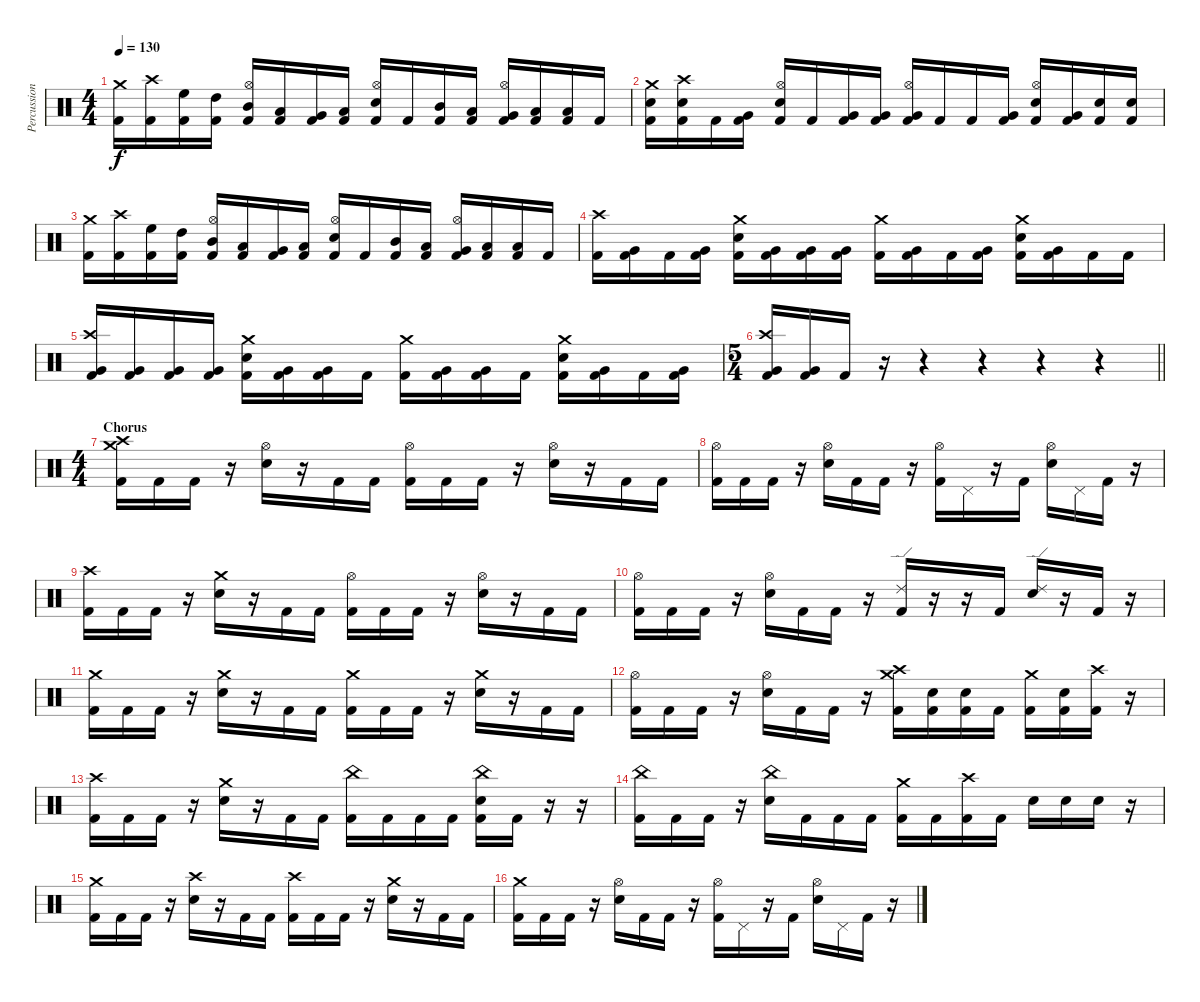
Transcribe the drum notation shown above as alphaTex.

\track ("Percussion" "Percussion") {instrument percussion}
\staff {score}
\articulation defaults
\ts (4 4)
\tempo 130
\clef neutral
\ks c
("Crash medium (hit)" "Kick (hit) 2").16{dy f} ("Crash high (hit)" "Kick (hit) 2").16 ("High Floor Tom (hit)" "Kick (hit) 2").16 ("High Tom (hit)" "Kick (hit) 2").16 ("Hi-Hat (open)" "Mid Tom (hit)" "Kick (hit) 2").16 ("Low Tom (hit)" "Kick (hit) 2").16 ("Very Low Tom (hit)" "Kick (hit) 2").16 ("Low Floor Tom (hit)" "Kick (hit) 2").16 ("Hi-Hat (open)" "Electric Snare (hit)" "Kick (hit) 2").16 "Kick (hit) 2".16 ("Mid Tom (hit)" "Kick (hit) 2").16 ("Low Tom (hit)" "Kick (hit) 2").16 ("Hi-Hat (open)" "Very Low Tom (hit)" "Kick (hit) 2").16 ("Low Floor Tom (hit)" "Kick (hit) 2").16 ("Low Floor Tom (hit)" "Kick (hit) 2").16 "Kick (hit) 2".16 |
("Crash medium (hit)" "Electric Snare (hit)" "Kick (hit) 2").16 ("Crash high (hit)" "Electric Snare (hit)" "Kick (hit) 2").16 "Kick (hit) 2".16 ("Very Low Tom (hit)" "Kick (hit) 2").16 ("Hi-Hat (open)" "Electric Snare (hit)" "Kick (hit) 2").16 "Kick (hit) 2".16 ("Very Low Tom (hit)" "Kick (hit) 2").16 ("Very Low Tom (hit)" "Kick (hit) 2").16 ("Hi-Hat (open)" "Very Low Tom (hit)" "Kick (hit) 2").16 "Kick (hit) 2".16 "Kick (hit) 2".16 ("Very Low Tom (hit)" "Kick (hit) 2").16 ("Hi-Hat (open)" "Electric Snare (hit)" "Kick (hit) 2").16 ("Very Low Tom (hit)" "Kick (hit) 2").16 ("Electric Snare (hit)" "Kick (hit) 2").16 ("Electric Snare (hit)" "Kick (hit) 2").16 |
("Crash medium (hit)" "Kick (hit) 2").16 ("Crash high (hit)" "Kick (hit) 2").16 ("High Floor Tom (hit)" "Kick (hit) 2").16 ("High Tom (hit)" "Kick (hit) 2").16 ("Hi-Hat (open)" "Mid Tom (hit)" "Kick (hit) 2").16 ("Low Tom (hit)" "Kick (hit) 2").16 ("Very Low Tom (hit)" "Kick (hit) 2").16 ("Low Floor Tom (hit)" "Kick (hit) 2").16 ("Hi-Hat (open)" "Electric Snare (hit)" "Kick (hit) 2").16 "Kick (hit) 2".16 ("Mid Tom (hit)" "Kick (hit) 2").16 ("Low Tom (hit)" "Kick (hit) 2").16 ("Hi-Hat (open)" "Very Low Tom (hit)" "Kick (hit) 2").16 ("Low Floor Tom (hit)" "Kick (hit) 2").16 ("Low Floor Tom (hit)" "Kick (hit) 2").16 "Kick (hit) 2".16 |
("Crash high (hit)" "Kick (hit) 2").16 ("Very Low Tom (hit)" "Kick (hit) 2").16 "Kick (hit) 2".16 ("Very Low Tom (hit)" "Kick (hit) 2").16 ("Crash medium (hit)" "Electric Snare (hit)" "Kick (hit) 2").16 ("Very Low Tom (hit)" "Kick (hit) 2").16 ("Very Low Tom (hit)" "Kick (hit) 2").16 ("Very Low Tom (hit)" "Kick (hit) 2").16 ("Crash medium (hit)" "Kick (hit) 2").16 ("Very Low Tom (hit)" "Kick (hit) 2").16 "Kick (hit) 2".16 ("Very Low Tom (hit)" "Kick (hit) 2").16 ("Crash medium (hit)" "Electric Snare (hit)" "Kick (hit) 2").16 ("Very Low Tom (hit)" "Kick (hit) 2").16 "Kick (hit) 2".16 "Kick (hit) 2".16 |
("Crash high (hit)" "Very Low Tom (hit)" "Kick (hit) 2").16 ("Very Low Tom (hit)" "Kick (hit) 2").16 ("Very Low Tom (hit)" "Kick (hit) 2").16 ("Very Low Tom (hit)" "Kick (hit) 2").16 ("Crash medium (hit)" "Electric Snare (hit)" "Kick (hit) 2").16 ("Very Low Tom (hit)" "Kick (hit) 2").16 ("Very Low Tom (hit)" "Kick (hit) 2").16 "Kick (hit) 2".16 ("Crash medium (hit)" "Kick (hit) 2").16 ("Very Low Tom (hit)" "Kick (hit) 2").16 ("Very Low Tom (hit)" "Kick (hit) 2").16 "Kick (hit) 2".16 ("Crash medium (hit)" "Electric Snare (hit)" "Kick (hit) 2").16 ("Very Low Tom (hit)" "Kick (hit) 2").16 "Kick (hit) 2".16 ("Very Low Tom (hit)" "Kick (hit) 2").16 |
\ts (5 4)
\barLineRight lightlight
("Crash high (hit)" "Very Low Tom (hit)" "Kick (hit) 2").16 ("Very Low Tom (hit)" "Kick (hit) 2").16 "Kick (hit) 2".16 r.16 r.4 r.4 r.4 r.4 |
\ts (4 4)
\section ("" "Chorus")
("Crash medium (hit)" "Crash high (hit)" "Kick (hit) 2").16 "Kick (hit) 2".16 "Kick (hit) 2".16 r.16 ("Hi-Hat (open)" "Electric Snare (hit)").16 r.16 "Kick (hit) 2".16 "Kick (hit) 2".16 ("Hi-Hat (open)" "Kick (hit) 2").16 "Kick (hit) 2".16 "Kick (hit) 2".16 r.16 ("Hi-Hat (open)" "Electric Snare (hit)").16 r.16 "Kick (hit) 2".16 "Kick (hit) 2".16 |
("Hi-Hat (open)" "Kick (hit) 2").16 "Kick (hit) 2".16 "Kick (hit) 2".16 r.16 ("Hi-Hat (open)" "Electric Snare (hit)").16 "Kick (hit) 2".16 "Kick (hit) 2".16 r.16 ("Hi-Hat (open)" "Kick (hit) 2").16 "Pedal Hi-Hat (hit)".16 r.16 "Kick (hit) 2".16 ("Hi-Hat (open)" "Electric Snare (hit)").16 "Pedal Hi-Hat (hit)".16 "Kick (hit) 2".16 r.16 |
("Crash high (hit)" "Kick (hit) 2").16 "Kick (hit) 2".16 "Kick (hit) 2".16 r.16 ("Crash medium (hit)" "Electric Snare (hit)").16 r.16 "Kick (hit) 2".16 "Kick (hit) 2".16 ("Hi-Hat (open)" "Kick (hit) 2").16 "Kick (hit) 2".16 "Kick (hit) 2".16 r.16 ("Hi-Hat (open)" "Electric Snare (hit)").16 r.16 "Kick (hit) 2".16 "Kick (hit) 2".16 |
("Hi-Hat (open)" "Kick (hit) 2").16 "Kick (hit) 2".16 "Kick (hit) 2".16 r.16 ("Hi-Hat (open)" "Electric Snare (hit)").16 "Kick (hit) 2".16 "Kick (hit) 2".16 r.16 ("Ride (edge) 2" "Kick (hit) 2").16 r.16 r.16 "Kick (hit) 2".16 ("Ride (edge) 2" "Electric Snare (hit)").16 r.16 "Kick (hit) 2".16 r.16 |
("Crash medium (hit)" "Kick (hit) 2").16 "Kick (hit) 2".16 "Kick (hit) 2".16 r.16 ("Crash medium (hit)" "Electric Snare (hit)").16 r.16 "Kick (hit) 2".16 "Kick (hit) 2".16 ("Crash medium (hit)" "Kick (hit) 2").16 "Kick (hit) 2".16 "Kick (hit) 2".16 r.16 ("Crash medium (hit)" "Electric Snare (hit)").16 r.16 "Kick (hit) 2".16 "Kick (hit) 2".16 |
("Hi-Hat (open)" "Kick (hit) 2").16 "Kick (hit) 2".16 "Kick (hit) 2".16 r.16 ("Hi-Hat (open)" "Electric Snare (hit)").16 "Kick (hit) 2".16 "Kick (hit) 2".16 r.16 ("Crash high (hit)" "Crash medium (hit)" "Kick (hit) 2").16 ("Electric Snare (hit)" "Kick (hit) 2").16 ("Electric Snare (hit)" "Kick (hit) 2").16 "Kick (hit) 2".16 ("Crash medium (hit)" "Kick (hit) 2").16 ("Electric Snare (hit)" "Kick (hit) 2").16 ("Crash high (hit)" "Kick (hit) 2").16 r.16 |
("Crash high (hit)" "Kick (hit) 2").16 "Kick (hit) 2".16 "Kick (hit) 2".16 r.16 ("Crash medium (hit)" "Electric Snare (hit)").16 r.16 "Kick (hit) 2".16 "Kick (hit) 2".16 ("China (hit)" "Kick (hit) 2").16 "Kick (hit) 2".16 "Kick (hit) 2".16 "Kick (hit) 2".16 ("China (hit)" "Electric Snare (hit)" "Kick (hit) 2").16 "Kick (hit) 2".16 r.16 r.16 |
("China (hit)" "Kick (hit) 2").16 "Kick (hit) 2".16 "Kick (hit) 2".16 r.16 ("China (hit)" "Electric Snare (hit)").16 "Kick (hit) 2".16 "Kick (hit) 2".16 "Kick (hit) 2".16 ("Crash medium (hit)" "Kick (hit) 2").16 "Kick (hit) 2".16 ("Crash high (hit)" "Kick (hit) 2").16 "Kick (hit) 2".16 "Electric Snare (hit)".16 "Electric Snare (hit)".16 "Electric Snare (hit)".16 r.16 |
("Crash medium (hit)" "Kick (hit) 2").16 "Kick (hit) 2".16 "Kick (hit) 2".16 r.16 ("Crash high (hit)" "Electric Snare (hit)").16 r.16 "Kick (hit) 2".16 "Kick (hit) 2".16 ("Crash high (hit)" "Kick (hit) 2").16 "Kick (hit) 2".16 "Kick (hit) 2".16 r.16 ("Crash medium (hit)" "Electric Snare (hit)").16 r.16 "Kick (hit) 2".16 "Kick (hit) 2".16 |
("Crash medium (hit)" "Kick (hit) 2").16 "Kick (hit) 2".16 "Kick (hit) 2".16 r.16 ("Hi-Hat (open)" "Electric Snare (hit)").16 "Kick (hit) 2".16 "Kick (hit) 2".16 r.16 ("Hi-Hat (open)" "Kick (hit) 2").16 "Pedal Hi-Hat (hit)".16 r.16 "Kick (hit) 2".16 ("Hi-Hat (open)" "Electric Snare (hit)").16 "Pedal Hi-Hat (hit)".16 "Kick (hit) 2".16 r.16
